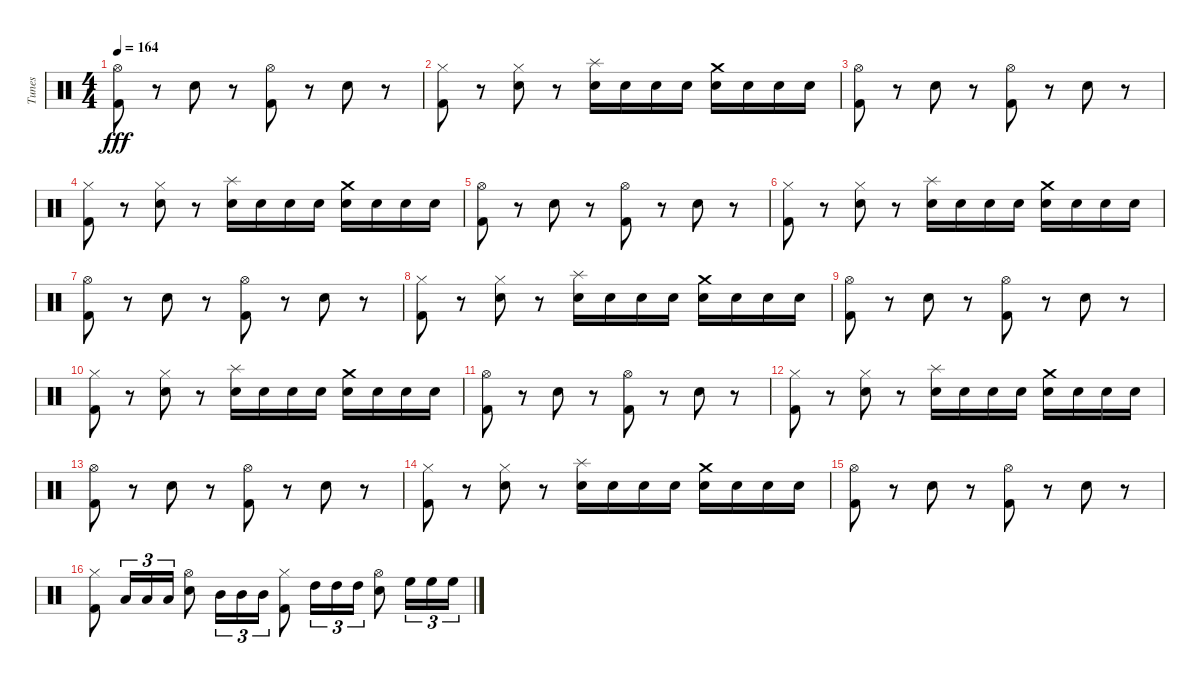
\track ("Tunes" "Tunes") {instrument percussion}
\staff {score}
\articulation defaults
\ts (4 4)
\tempo 164
\clef neutral
\ks c
("Hi-Hat (open)" "Kick (hit) 2").8{dy fff} r.8 "Electric Snare (hit)".8 r.8 ("Hi-Hat (open)" "Kick (hit) 2").8 r.8 "Electric Snare (hit)".8 r.8 |
("Hi-Hat (closed)" "Kick (hit) 2").8 r.8 ("Hi-Hat (closed)" "Electric Snare (hit)").8 r.8 ("Splash (hit)" "Electric Snare (hit)").16 "Electric Snare (hit)".16 "Electric Snare (hit)".16 "Electric Snare (hit)".16 ("Crash medium (hit)" "Electric Snare (hit)").16 "Electric Snare (hit)".16 "Electric Snare (hit)".16 "Electric Snare (hit)".16 |
("Hi-Hat (open)" "Kick (hit) 2").8 r.8 "Electric Snare (hit)".8 r.8 ("Hi-Hat (open)" "Kick (hit) 2").8 r.8 "Electric Snare (hit)".8 r.8 |
("Hi-Hat (closed)" "Kick (hit) 2").8 r.8 ("Hi-Hat (closed)" "Electric Snare (hit)").8 r.8 ("Splash (hit)" "Electric Snare (hit)").16 "Electric Snare (hit)".16 "Electric Snare (hit)".16 "Electric Snare (hit)".16 ("Crash medium (hit)" "Electric Snare (hit)").16 "Electric Snare (hit)".16 "Electric Snare (hit)".16 "Electric Snare (hit)".16 |
("Hi-Hat (open)" "Kick (hit) 2").8 r.8 "Electric Snare (hit)".8 r.8 ("Hi-Hat (open)" "Kick (hit) 2").8 r.8 "Electric Snare (hit)".8 r.8 |
("Hi-Hat (closed)" "Kick (hit) 2").8 r.8 ("Hi-Hat (closed)" "Electric Snare (hit)").8 r.8 ("Splash (hit)" "Electric Snare (hit)").16 "Electric Snare (hit)".16 "Electric Snare (hit)".16 "Electric Snare (hit)".16 ("Crash medium (hit)" "Electric Snare (hit)").16 "Electric Snare (hit)".16 "Electric Snare (hit)".16 "Electric Snare (hit)".16 |
("Hi-Hat (open)" "Kick (hit) 2").8 r.8 "Electric Snare (hit)".8 r.8 ("Hi-Hat (open)" "Kick (hit) 2").8 r.8 "Electric Snare (hit)".8 r.8 |
("Hi-Hat (closed)" "Kick (hit) 2").8 r.8 ("Hi-Hat (closed)" "Electric Snare (hit)").8 r.8 ("Splash (hit)" "Electric Snare (hit)").16 "Electric Snare (hit)".16 "Electric Snare (hit)".16 "Electric Snare (hit)".16 ("Crash medium (hit)" "Electric Snare (hit)").16 "Electric Snare (hit)".16 "Electric Snare (hit)".16 "Electric Snare (hit)".16 |
("Hi-Hat (open)" "Kick (hit) 2").8 r.8 "Electric Snare (hit)".8 r.8 ("Hi-Hat (open)" "Kick (hit) 2").8 r.8 "Electric Snare (hit)".8 r.8 |
("Hi-Hat (closed)" "Kick (hit) 2").8 r.8 ("Hi-Hat (closed)" "Electric Snare (hit)").8 r.8 ("Splash (hit)" "Electric Snare (hit)").16 "Electric Snare (hit)".16 "Electric Snare (hit)".16 "Electric Snare (hit)".16 ("Crash medium (hit)" "Electric Snare (hit)").16 "Electric Snare (hit)".16 "Electric Snare (hit)".16 "Electric Snare (hit)".16 |
("Hi-Hat (open)" "Kick (hit) 2").8 r.8 "Electric Snare (hit)".8 r.8 ("Hi-Hat (open)" "Kick (hit) 2").8 r.8 "Electric Snare (hit)".8 r.8 |
("Hi-Hat (closed)" "Kick (hit) 2").8 r.8 ("Hi-Hat (closed)" "Electric Snare (hit)").8 r.8 ("Splash (hit)" "Electric Snare (hit)").16 "Electric Snare (hit)".16 "Electric Snare (hit)".16 "Electric Snare (hit)".16 ("Crash medium (hit)" "Electric Snare (hit)").16 "Electric Snare (hit)".16 "Electric Snare (hit)".16 "Electric Snare (hit)".16 |
("Hi-Hat (open)" "Kick (hit) 2").8 r.8 "Electric Snare (hit)".8 r.8 ("Hi-Hat (open)" "Kick (hit) 2").8 r.8 "Electric Snare (hit)".8 r.8 |
("Hi-Hat (closed)" "Kick (hit) 2").8 r.8 ("Hi-Hat (closed)" "Electric Snare (hit)").8 r.8 ("Splash (hit)" "Electric Snare (hit)").16 "Electric Snare (hit)".16 "Electric Snare (hit)".16 "Electric Snare (hit)".16 ("Crash medium (hit)" "Electric Snare (hit)").16 "Electric Snare (hit)".16 "Electric Snare (hit)".16 "Electric Snare (hit)".16 |
("Hi-Hat (open)" "Kick (hit) 2").8 r.8 "Electric Snare (hit)".8 r.8 ("Hi-Hat (open)" "Kick (hit) 2").8 r.8 "Electric Snare (hit)".8 r.8 |
("Kick (hit) 2" "Hi-Hat (closed)").8 "Low Tom (hit)".16{tu (3 2)} "Low Tom (hit)".16{tu (3 2)} "Low Tom (hit)".16{tu (3 2)} ("Electric Snare (hit)" "Hi-Hat (open)").8 "Mid Tom (hit)".16{tu (3 2)} "Mid Tom (hit)".16{tu (3 2)} "Mid Tom (hit)".16{tu (3 2)} ("Kick (hit) 2" "Hi-Hat (closed)").8 "High Tom (hit)".16{tu (3 2)} "High Tom (hit)".16{tu (3 2)} "High Tom (hit)".16{tu (3 2)} ("Electric Snare (hit)" "Hi-Hat (open)").8 "High Floor Tom (hit)".16{tu (3 2)} "High Floor Tom (hit)".16{tu (3 2)} "High Floor Tom (hit)".16{tu (3 2)}
